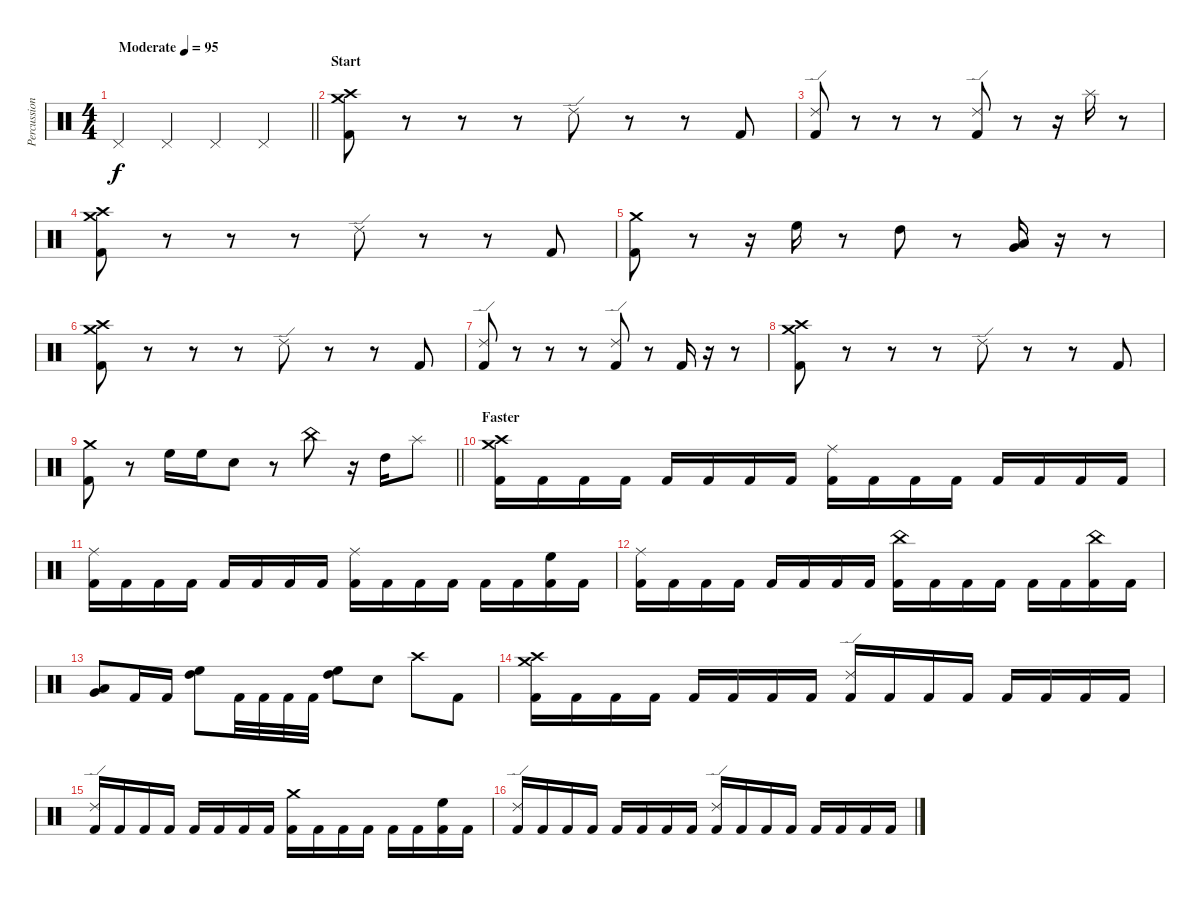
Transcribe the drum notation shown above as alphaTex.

\track ("Percussion" "Percussion") {instrument percussion}
\staff {score}
\articulation defaults
\ts (4 4)
\tempo (95 "Moderate")
\clef neutral
\barLineRight lightlight
\ks c "Pedal Hi-Hat (hit)".4{dy f} "Pedal Hi-Hat (hit)".4 "Pedal Hi-Hat (hit)".4 "Pedal Hi-Hat (hit)".4
|
\section ("" "Start")
("Crash medium (hit)" "Crash high (hit)" "Kick (hit) 2").8 r.8 r.8 r.8 "Ride (edge) 2".8 r.8 r.8 "Kick (hit) 2".8 |
("Ride (edge) 2" "Kick (hit) 2").8 r.8 r.8 r.8 ("Ride (edge) 2" "Kick (hit) 2").8 r.8 r.16 "Splash (hit)".16 r.8 |
("Crash medium (hit)" "Crash high (hit)" "Kick (hit) 2").8 r.8 r.8 r.8 "Ride (edge) 2".8 r.8 r.8 "Kick (hit) 2".8 |
("Crash medium (hit)" "Kick (hit) 2").8 r.8 r.16 "High Floor Tom (hit)".16 r.8 "High Tom (hit)".8 r.8 ("Very Low Tom (hit)" "Low Tom (hit)").16 r.16 r.8 |
("Crash medium (hit)" "Crash high (hit)" "Kick (hit) 2").8 r.8 r.8 r.8 "Ride (edge) 2".8 r.8 r.8 "Kick (hit) 2".8 |
("Ride (edge) 2" "Kick (hit) 2").8 r.8 r.8 r.8 ("Ride (edge) 2" "Kick (hit) 2").8 r.8 "Kick (hit) 2".16 r.16 r.8 |
("Crash medium (hit)" "Crash high (hit)" "Kick (hit) 2").8 r.8 r.8 r.8 "Ride (edge) 2".8 r.8 r.8 "Kick (hit) 2".8 |
\barLineRight lightlight
("Crash medium (hit)" "Kick (hit) 2").8 r.8 "High Floor Tom (hit)".16 "High Floor Tom (hit)".16 "Electric Snare (hit)".8 r.8 "China (hit)".8 r.16 "High Tom (hit)".16 "Splash (hit)".8 |
\section ("" "Faster")
("Crash high (hit)" "Crash medium (hit)" "Kick (hit) 2").16 "Kick (hit) 2".16 "Kick (hit) 2".16 "Kick (hit) 2".16 "Kick (hit) 2".16 "Kick (hit) 2".16 "Kick (hit) 2".16 "Kick (hit) 2".16 ("Ride (middle)" "Kick (hit) 2").16 "Kick (hit) 2".16 "Kick (hit) 2".16 "Kick (hit) 2".16 "Kick (hit) 2".16 "Kick (hit) 2".16 "Kick (hit) 2".16 "Kick (hit) 2".16 |
("Ride (middle)" "Kick (hit) 2").16 "Kick (hit) 2".16 "Kick (hit) 2".16 "Kick (hit) 2".16 "Kick (hit) 2".16 "Kick (hit) 2".16 "Kick (hit) 2".16 "Kick (hit) 2".16 ("Ride (middle)" "Kick (hit) 2").16 "Kick (hit) 2".16 "Kick (hit) 2".16 "Kick (hit) 2".16 "Kick (hit) 2".16 "Kick (hit) 2".16 ("High Floor Tom (hit)" "Kick (hit) 2").16 "Kick (hit) 2".16 |
("Ride (middle)" "Kick (hit) 2").16 "Kick (hit) 2".16 "Kick (hit) 2".16 "Kick (hit) 2".16 "Kick (hit) 2".16 "Kick (hit) 2".16 "Kick (hit) 2".16 "Kick (hit) 2".16 ("China (hit)" "Kick (hit) 2").16 "Kick (hit) 2".16 "Kick (hit) 2".16 "Kick (hit) 2".16 "Kick (hit) 2".16 "Kick (hit) 2".16 ("China (hit)" "Kick (hit) 2").16 "Kick (hit) 2".16 |
("Very Low Tom (hit)" "Low Tom (hit)").8 "Kick (hit) 2".16 "Kick (hit) 2".16 ("High Tom (hit)" "High Floor Tom (hit)").8 "Kick (hit) 2".32 "Kick (hit) 2".32 "Kick (hit) 2".32 "Kick (hit) 2".32 ("High Floor Tom (hit)" "High Tom (hit)").8 "Electric Snare (hit)".8 "Crash high (hit)".8 "Kick (hit) 2".8 |
("Crash high (hit)" "Crash medium (hit)" "Kick (hit) 2").16 "Kick (hit) 2".16 "Kick (hit) 2".16 "Kick (hit) 2".16 "Kick (hit) 2".16 "Kick (hit) 2".16 "Kick (hit) 2".16 "Kick (hit) 2".16 ("Ride (edge) 2" "Kick (hit) 2").16 "Kick (hit) 2".16 "Kick (hit) 2".16 "Kick (hit) 2".16 "Kick (hit) 2".16 "Kick (hit) 2".16 "Kick (hit) 2".16 "Kick (hit) 2".16 |
("Ride (edge) 2" "Kick (hit) 2").16 "Kick (hit) 2".16 "Kick (hit) 2".16 "Kick (hit) 2".16 "Kick (hit) 2".16 "Kick (hit) 2".16 "Kick (hit) 2".16 "Kick (hit) 2".16 ("Crash medium (hit)" "Kick (hit) 2").16 "Kick (hit) 2".16 "Kick (hit) 2".16 "Kick (hit) 2".16 "Kick (hit) 2".16 "Kick (hit) 2".16 ("High Floor Tom (hit)" "Kick (hit) 2").16 "Kick (hit) 2".16 |
("Ride (edge) 2" "Kick (hit) 2").16 "Kick (hit) 2".16 "Kick (hit) 2".16 "Kick (hit) 2".16 "Kick (hit) 2".16 "Kick (hit) 2".16 "Kick (hit) 2".16 "Kick (hit) 2".16 ("Ride (edge) 2" "Kick (hit) 2").16 "Kick (hit) 2".16 "Kick (hit) 2".16 "Kick (hit) 2".16 "Kick (hit) 2".16 "Kick (hit) 2".16 "Kick (hit) 2".16 "Kick (hit) 2".16
